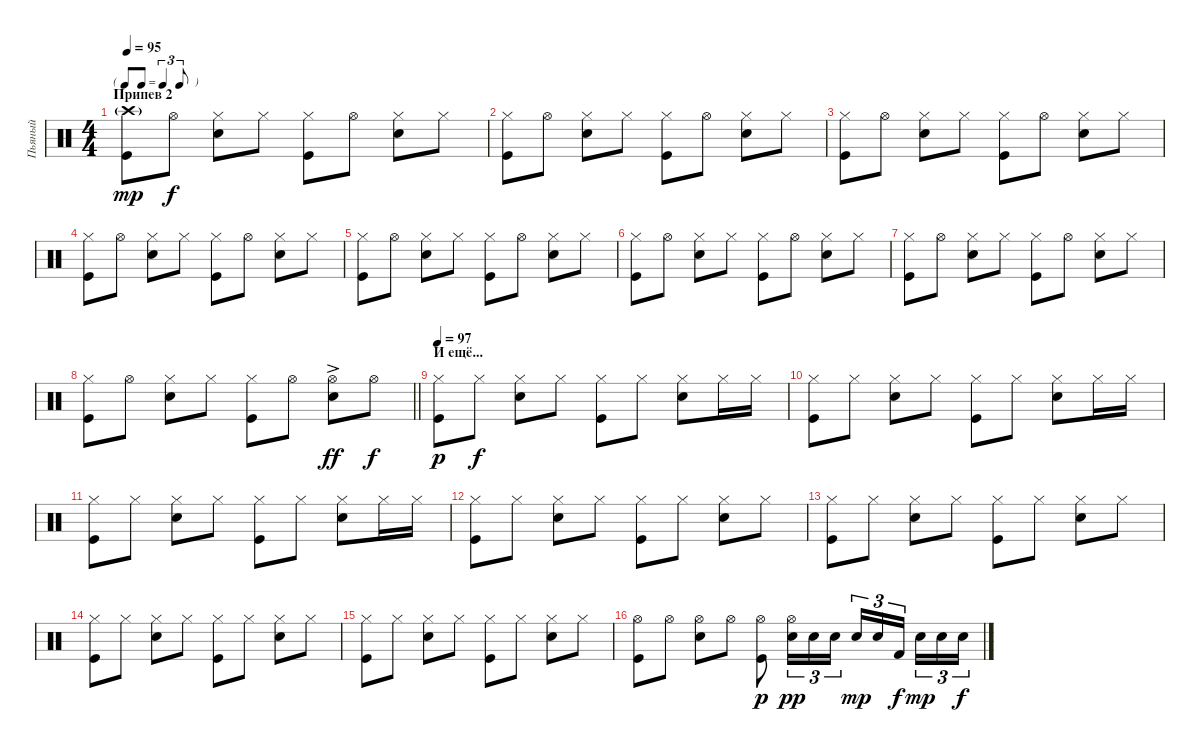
\track ("Пьяный" "Пьяный") {instrument percussion}
\staff {score}
\articulation defaults
\ts (4 4)
\tf triplet8th
\section ("" "Припев 2")
\tempo 95
\clef neutral
\ks c
("Crash high (hit)"{g} "Kick (hit)").8{dy mp} "Hi-Hat (open)".8{dy f} ("Hi-Hat (closed)" "Snare (hit) 2").8 "Hi-Hat (closed)".8 ("Hi-Hat (closed)" "Kick (hit)").8 "Hi-Hat (open)".8 ("Hi-Hat (closed)" "Snare (hit) 2").8 "Hi-Hat (closed)".8 |
("Hi-Hat (closed)" "Kick (hit)").8 "Hi-Hat (open)".8 ("Hi-Hat (closed)" "Snare (hit) 2").8 "Hi-Hat (closed)".8 ("Hi-Hat (closed)" "Kick (hit)").8 "Hi-Hat (open)".8 ("Hi-Hat (closed)" "Snare (hit) 2").8 "Hi-Hat (closed)".8 |
("Hi-Hat (closed)" "Kick (hit)").8 "Hi-Hat (open)".8 ("Hi-Hat (closed)" "Snare (hit) 2").8 "Hi-Hat (closed)".8 ("Hi-Hat (closed)" "Kick (hit)").8 "Hi-Hat (open)".8 ("Hi-Hat (closed)" "Snare (hit) 2").8 "Hi-Hat (closed)".8 |
("Hi-Hat (closed)" "Kick (hit)").8 "Hi-Hat (open)".8 ("Hi-Hat (closed)" "Snare (hit) 2").8 "Hi-Hat (closed)".8 ("Hi-Hat (closed)" "Kick (hit)").8 "Hi-Hat (open)".8 ("Hi-Hat (closed)" "Snare (hit) 2").8 "Hi-Hat (closed)".8 |
("Hi-Hat (closed)" "Kick (hit)").8 "Hi-Hat (open)".8 ("Hi-Hat (closed)" "Snare (hit) 2").8 "Hi-Hat (closed)".8 ("Hi-Hat (closed)" "Kick (hit)").8 "Hi-Hat (open)".8 ("Hi-Hat (closed)" "Snare (hit) 2").8 "Hi-Hat (closed)".8 |
("Hi-Hat (closed)" "Kick (hit)").8 "Hi-Hat (open)".8 ("Hi-Hat (closed)" "Snare (hit) 2").8 "Hi-Hat (closed)".8 ("Hi-Hat (closed)" "Kick (hit)").8 "Hi-Hat (open)".8 ("Hi-Hat (closed)" "Snare (hit) 2").8 "Hi-Hat (closed)".8 |
("Hi-Hat (closed)" "Kick (hit)").8 "Hi-Hat (open)".8 ("Hi-Hat (closed)" "Snare (hit) 2").8 "Hi-Hat (closed)".8 ("Hi-Hat (closed)" "Kick (hit)").8 "Hi-Hat (open)".8 ("Hi-Hat (closed)" "Snare (hit) 2").8 "Hi-Hat (closed)".8 |
\barLineRight lightlight
("Hi-Hat (closed)" "Kick (hit)").8 "Hi-Hat (open)".8 ("Hi-Hat (closed)" "Snare (hit) 2").8 "Hi-Hat (closed)".8 ("Hi-Hat (closed)" "Kick (hit)").8 "Hi-Hat (open)".8 ("Hi-Hat (open)"{ac} "Snare (hit) 2").8{dy ff} "Hi-Hat (open)".8{dy f} |
\section ("" "И ещё...")
\tempo 97
("Hi-Hat (closed)" "Kick (hit)").8{dy p} "Hi-Hat (closed)".8{dy f} ("Hi-Hat (closed)" "Snare (hit) 2").8 "Hi-Hat (closed)".8 ("Hi-Hat (closed)" "Kick (hit)").8 "Hi-Hat (closed)".8 ("Hi-Hat (closed)" "Snare (hit) 2").8 "Hi-Hat (closed)".16 "Hi-Hat (closed)".16 |
("Hi-Hat (closed)" "Kick (hit)").8 "Hi-Hat (closed)".8 ("Hi-Hat (closed)" "Snare (hit) 2").8 "Hi-Hat (closed)".8 ("Hi-Hat (closed)" "Kick (hit)").8 "Hi-Hat (closed)".8 ("Hi-Hat (closed)" "Snare (hit) 2").8 "Hi-Hat (closed)".16 "Hi-Hat (closed)".16 |
("Hi-Hat (closed)" "Kick (hit)").8 "Hi-Hat (closed)".8 ("Hi-Hat (closed)" "Snare (hit) 2").8 "Hi-Hat (closed)".8 ("Hi-Hat (closed)" "Kick (hit)").8 "Hi-Hat (closed)".8 ("Hi-Hat (closed)" "Snare (hit) 2").8 "Hi-Hat (closed)".16 "Hi-Hat (closed)".16 |
("Hi-Hat (closed)" "Kick (hit)").8 "Hi-Hat (closed)".8 ("Hi-Hat (closed)" "Snare (hit) 2").8 "Hi-Hat (closed)".8 ("Hi-Hat (closed)" "Kick (hit)").8 "Hi-Hat (closed)".8 ("Hi-Hat (closed)" "Snare (hit) 2").8 "Hi-Hat (closed)".8 |
("Hi-Hat (closed)" "Kick (hit)").8 "Hi-Hat (closed)".8 ("Hi-Hat (closed)" "Snare (hit) 2").8 "Hi-Hat (closed)".8 ("Hi-Hat (closed)" "Kick (hit)").8 "Hi-Hat (closed)".8 ("Hi-Hat (closed)" "Snare (hit) 2").8 "Hi-Hat (closed)".8 |
("Hi-Hat (closed)" "Kick (hit)").8 "Hi-Hat (closed)".8 ("Hi-Hat (closed)" "Snare (hit) 2").8 "Hi-Hat (closed)".8 ("Hi-Hat (closed)" "Kick (hit)").8 "Hi-Hat (closed)".8 ("Hi-Hat (closed)" "Snare (hit) 2").8 "Hi-Hat (closed)".8 |
("Hi-Hat (closed)" "Kick (hit)").8 "Hi-Hat (closed)".8 ("Hi-Hat (closed)" "Snare (hit) 2").8 "Hi-Hat (closed)".8 ("Hi-Hat (closed)" "Kick (hit)").8 "Hi-Hat (closed)".8 ("Hi-Hat (closed)" "Snare (hit) 2").8 "Hi-Hat (closed)".8 |
("Hi-Hat (open)" "Kick (hit)").8 "Hi-Hat (open)".8 ("Hi-Hat (open)" "Snare (hit) 2").8 "Hi-Hat (open)".8 ("Hi-Hat (open)" "Kick (hit)").8{dy p} ("Hi-Hat (open)" "Snare (hit) 2").16{tu (3 2) dy pp} "Snare (hit) 2".16{tu (3 2)} "Snare (hit) 2".16{tu (3 2)} "Snare (hit) 2".16{tu (3 2) dy mp} "Snare (hit) 2".16{tu (3 2)} "Kick (hit) 2".16{tu (3 2) dy f beam splitsecondary} "Snare (hit) 2".16{tu (3 2) dy mp} "Snare (hit) 2".16{tu (3 2)} "Snare (hit) 2".16{tu (3 2) dy f}
